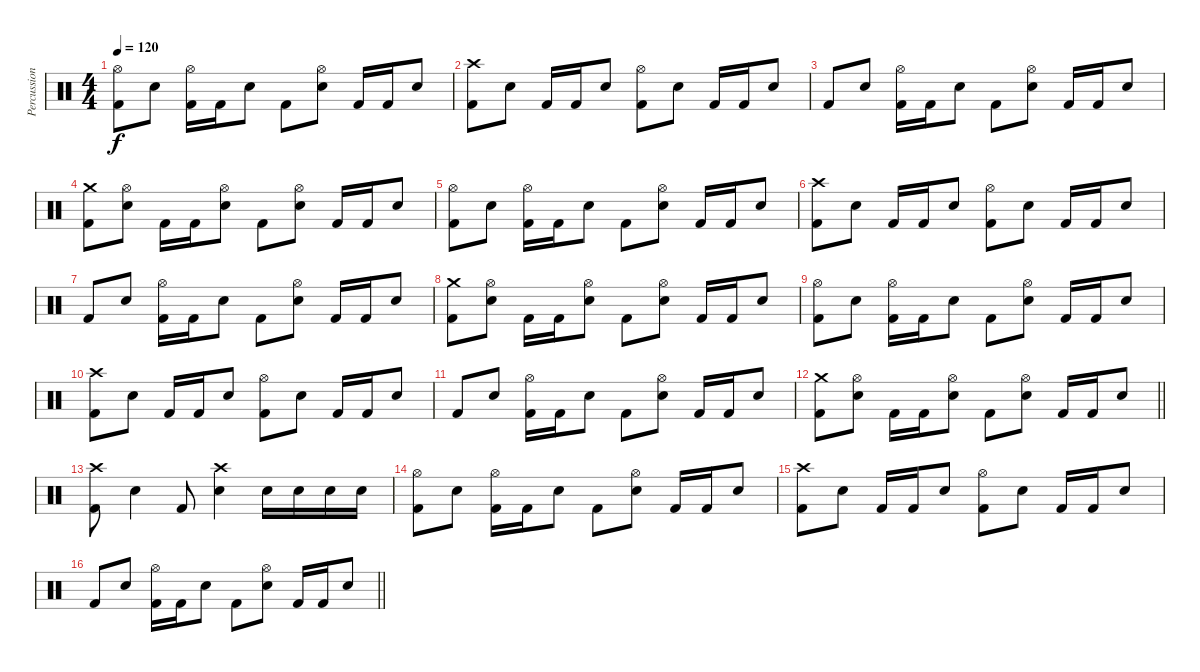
\track ("Percussion" "Percussion") {instrument percussion}
\staff {score}
\articulation defaults
\ts (4 4)
\tempo 120
\clef neutral
\ks aminor
("Kick (hit) 2" "Hi-Hat (open)").8{dy f} "Snare (hit) 2".8 ("Kick (hit) 2" "Hi-Hat (open)").16 "Kick (hit) 2".16 "Snare (hit) 2".8 "Kick (hit) 2".8 ("Snare (hit) 2" "Hi-Hat (open)").8 "Kick (hit) 2".16 "Kick (hit) 2".16 "Snare (hit) 2".8 |
("Kick (hit) 2" "Crash high (hit)").8 "Snare (hit) 2".8 "Kick (hit) 2".16 "Kick (hit) 2".16 "Snare (hit) 2".8 ("Kick (hit) 2" "Hi-Hat (open)").8 "Snare (hit) 2".8 "Kick (hit) 2".16 "Kick (hit) 2".16 "Snare (hit) 2".8 |
"Kick (hit) 2".8 "Snare (hit) 2".8 ("Kick (hit) 2" "Hi-Hat (open)").16 "Kick (hit) 2".16 "Snare (hit) 2".8 "Kick (hit) 2".8 ("Snare (hit) 2" "Hi-Hat (open)").8 "Kick (hit) 2".16 "Kick (hit) 2".16 "Snare (hit) 2".8 |
("Kick (hit) 2" "Crash medium (hit)").8 ("Snare (hit) 2" "Hi-Hat (open)").8 "Kick (hit) 2".16 "Kick (hit) 2".16 ("Snare (hit) 2" "Hi-Hat (open)").8 "Kick (hit) 2".8 ("Snare (hit) 2" "Hi-Hat (open)").8 "Kick (hit) 2".16 "Kick (hit) 2".16 "Snare (hit) 2".8 |
("Kick (hit) 2" "Hi-Hat (open)").8 "Snare (hit) 2".8 ("Kick (hit) 2" "Hi-Hat (open)").16 "Kick (hit) 2".16 "Snare (hit) 2".8 "Kick (hit) 2".8 ("Snare (hit) 2" "Hi-Hat (open)").8 "Kick (hit) 2".16 "Kick (hit) 2".16 "Snare (hit) 2".8 |
("Kick (hit) 2" "Crash high (hit)").8 "Snare (hit) 2".8 "Kick (hit) 2".16 "Kick (hit) 2".16 "Snare (hit) 2".8 ("Kick (hit) 2" "Hi-Hat (open)").8 "Snare (hit) 2".8 "Kick (hit) 2".16 "Kick (hit) 2".16 "Snare (hit) 2".8 |
"Kick (hit) 2".8 "Snare (hit) 2".8 ("Kick (hit) 2" "Hi-Hat (open)").16 "Kick (hit) 2".16 "Snare (hit) 2".8 "Kick (hit) 2".8 ("Snare (hit) 2" "Hi-Hat (open)").8 "Kick (hit) 2".16 "Kick (hit) 2".16 "Snare (hit) 2".8 |
("Kick (hit) 2" "Crash medium (hit)").8 ("Snare (hit) 2" "Hi-Hat (open)").8 "Kick (hit) 2".16 "Kick (hit) 2".16 ("Snare (hit) 2" "Hi-Hat (open)").8 "Kick (hit) 2".8 ("Snare (hit) 2" "Hi-Hat (open)").8 "Kick (hit) 2".16 "Kick (hit) 2".16 "Snare (hit) 2".8 |
\ks c
("Kick (hit) 2" "Hi-Hat (open)").8 "Snare (hit) 2".8 ("Kick (hit) 2" "Hi-Hat (open)").16 "Kick (hit) 2".16 "Snare (hit) 2".8 "Kick (hit) 2".8 ("Snare (hit) 2" "Hi-Hat (open)").8 "Kick (hit) 2".16 "Kick (hit) 2".16 "Snare (hit) 2".8 |
("Kick (hit) 2" "Crash high (hit)").8 "Snare (hit) 2".8 "Kick (hit) 2".16 "Kick (hit) 2".16 "Snare (hit) 2".8 ("Kick (hit) 2" "Hi-Hat (open)").8 "Snare (hit) 2".8 "Kick (hit) 2".16 "Kick (hit) 2".16 "Snare (hit) 2".8 |
"Kick (hit) 2".8 "Snare (hit) 2".8 ("Kick (hit) 2" "Hi-Hat (open)").16 "Kick (hit) 2".16 "Snare (hit) 2".8 "Kick (hit) 2".8 ("Snare (hit) 2" "Hi-Hat (open)").8 "Kick (hit) 2".16 "Kick (hit) 2".16 "Snare (hit) 2".8 |
\barLineRight lightlight
("Kick (hit) 2" "Crash medium (hit)").8 ("Snare (hit) 2" "Hi-Hat (open)").8 "Kick (hit) 2".16 "Kick (hit) 2".16 ("Snare (hit) 2" "Hi-Hat (open)").8 "Kick (hit) 2".8 ("Snare (hit) 2" "Hi-Hat (open)").8 "Kick (hit) 2".16 "Kick (hit) 2".16 "Snare (hit) 2".8 |
("Kick (hit) 2" "Crash high (hit)").8 "Snare (hit) 2".4 "Kick (hit) 2".8 ("Snare (hit) 2" "Crash high (hit)").4 "Snare (hit) 2".16 "Snare (hit) 2".16 "Snare (hit) 2".16 "Snare (hit) 2".16 |
("Kick (hit) 2" "Hi-Hat (open)").8 "Snare (hit) 2".8 ("Kick (hit) 2" "Hi-Hat (open)").16 "Kick (hit) 2".16 "Snare (hit) 2".8 "Kick (hit) 2".8 ("Snare (hit) 2" "Hi-Hat (open)").8 "Kick (hit) 2".16 "Kick (hit) 2".16 "Snare (hit) 2".8 |
("Kick (hit) 2" "Crash high (hit)").8 "Snare (hit) 2".8 "Kick (hit) 2".16 "Kick (hit) 2".16 "Snare (hit) 2".8 ("Kick (hit) 2" "Hi-Hat (open)").8 "Snare (hit) 2".8 "Kick (hit) 2".16 "Kick (hit) 2".16 "Snare (hit) 2".8 |
\barLineRight lightlight "Kick (hit) 2".8 "Snare (hit) 2".8
("Kick (hit) 2" "Hi-Hat (open)").16 "Kick (hit) 2".16 "Snare (hit) 2".8 "Kick (hit) 2".8 ("Snare (hit) 2" "Hi-Hat (open)").8 "Kick (hit) 2".16 "Kick (hit) 2".16 "Snare (hit) 2".8
